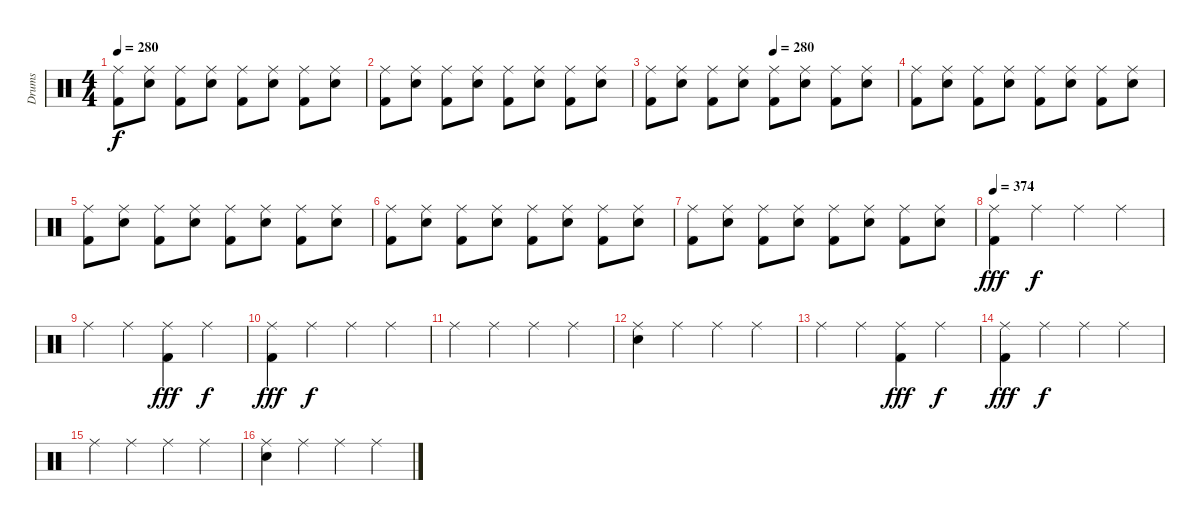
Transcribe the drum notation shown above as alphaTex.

\track ("Drums" "Drums") {instrument percussion}
\staff {score}
\articulation defaults
\ts (4 4)
\tempo 280
\clef neutral
\ks c
("Ride (middle)" "Kick (hit) 2").8{dy f} ("Ride (middle)" "Snare (hit) 2").8 ("Ride (middle)" "Kick (hit) 2").8 ("Ride (middle)" "Snare (hit) 2").8 ("Ride (middle)" "Kick (hit) 2").8 ("Ride (middle)" "Snare (hit) 2").8 ("Ride (middle)" "Kick (hit) 2").8 ("Ride (middle)" "Snare (hit) 2").8 |
("Ride (middle)" "Kick (hit) 2").8 ("Ride (middle)" "Snare (hit) 2").8 ("Ride (middle)" "Kick (hit) 2").8 ("Ride (middle)" "Snare (hit) 2").8 ("Ride (middle)" "Kick (hit) 2").8 ("Ride (middle)" "Snare (hit) 2").8 ("Ride (middle)" "Kick (hit) 2").8 ("Ride (middle)" "Snare (hit) 2").8 |
\tempo (280 0.5)
("Ride (middle)" "Kick (hit) 2").8 ("Ride (middle)" "Snare (hit) 2").8 ("Ride (middle)" "Kick (hit) 2").8 ("Ride (middle)" "Snare (hit) 2").8 ("Ride (middle)" "Kick (hit) 2").8 ("Ride (middle)" "Snare (hit) 2").8 ("Ride (middle)" "Kick (hit) 2").8 ("Ride (middle)" "Snare (hit) 2").8 |
("Ride (middle)" "Kick (hit) 2").8 ("Ride (middle)" "Snare (hit) 2").8 ("Ride (middle)" "Kick (hit) 2").8 ("Ride (middle)" "Snare (hit) 2").8 ("Ride (middle)" "Kick (hit) 2").8 ("Ride (middle)" "Snare (hit) 2").8 ("Ride (middle)" "Kick (hit) 2").8 ("Ride (middle)" "Snare (hit) 2").8 |
("Ride (middle)" "Kick (hit) 2").8 ("Ride (middle)" "Snare (hit) 2").8 ("Ride (middle)" "Kick (hit) 2").8 ("Ride (middle)" "Snare (hit) 2").8 ("Ride (middle)" "Kick (hit) 2").8 ("Ride (middle)" "Snare (hit) 2").8 ("Ride (middle)" "Kick (hit) 2").8 ("Ride (middle)" "Snare (hit) 2").8 |
("Ride (middle)" "Kick (hit) 2").8 ("Ride (middle)" "Snare (hit) 2").8 ("Ride (middle)" "Kick (hit) 2").8 ("Ride (middle)" "Snare (hit) 2").8 ("Ride (middle)" "Kick (hit) 2").8 ("Ride (middle)" "Snare (hit) 2").8 ("Ride (middle)" "Kick (hit) 2").8 ("Ride (middle)" "Snare (hit) 2").8 |
("Ride (middle)" "Kick (hit) 2").8 ("Ride (middle)" "Snare (hit) 2").8 ("Ride (middle)" "Kick (hit) 2").8 ("Ride (middle)" "Snare (hit) 2").8 ("Ride (middle)" "Kick (hit) 2").8 ("Ride (middle)" "Snare (hit) 2").8 ("Ride (middle)" "Kick (hit) 2").8 ("Ride (middle)" "Snare (hit) 2").8 |
\tempo 374
("Ride (middle)" "Kick (hit) 2").4{dy fff} "Ride (middle)".4{dy f} "Ride (middle)".4 "Ride (middle)".4 |
"Ride (middle)".4 "Ride (middle)".4 ("Ride (middle)" "Kick (hit) 2").4{dy fff} "Ride (middle)".4{dy f} |
("Ride (middle)" "Kick (hit) 2").4{dy fff} "Ride (middle)".4{dy f} "Ride (middle)".4 "Ride (middle)".4 |
"Ride (middle)".4 "Ride (middle)".4 "Ride (middle)".4 "Ride (middle)".4 |
("Ride (middle)" "Snare (hit) 2").4 "Ride (middle)".4 "Ride (middle)".4 "Ride (middle)".4 |
"Ride (middle)".4 "Ride (middle)".4 ("Ride (middle)" "Kick (hit) 2").4{dy fff} "Ride (middle)".4{dy f} |
("Ride (middle)" "Kick (hit) 2").4{dy fff} "Ride (middle)".4{dy f} "Ride (middle)".4 "Ride (middle)".4 |
"Ride (middle)".4 "Ride (middle)".4 "Ride (middle)".4 "Ride (middle)".4 |
("Ride (middle)" "Snare (hit) 2").4 "Ride (middle)".4 "Ride (middle)".4 "Ride (middle)".4
